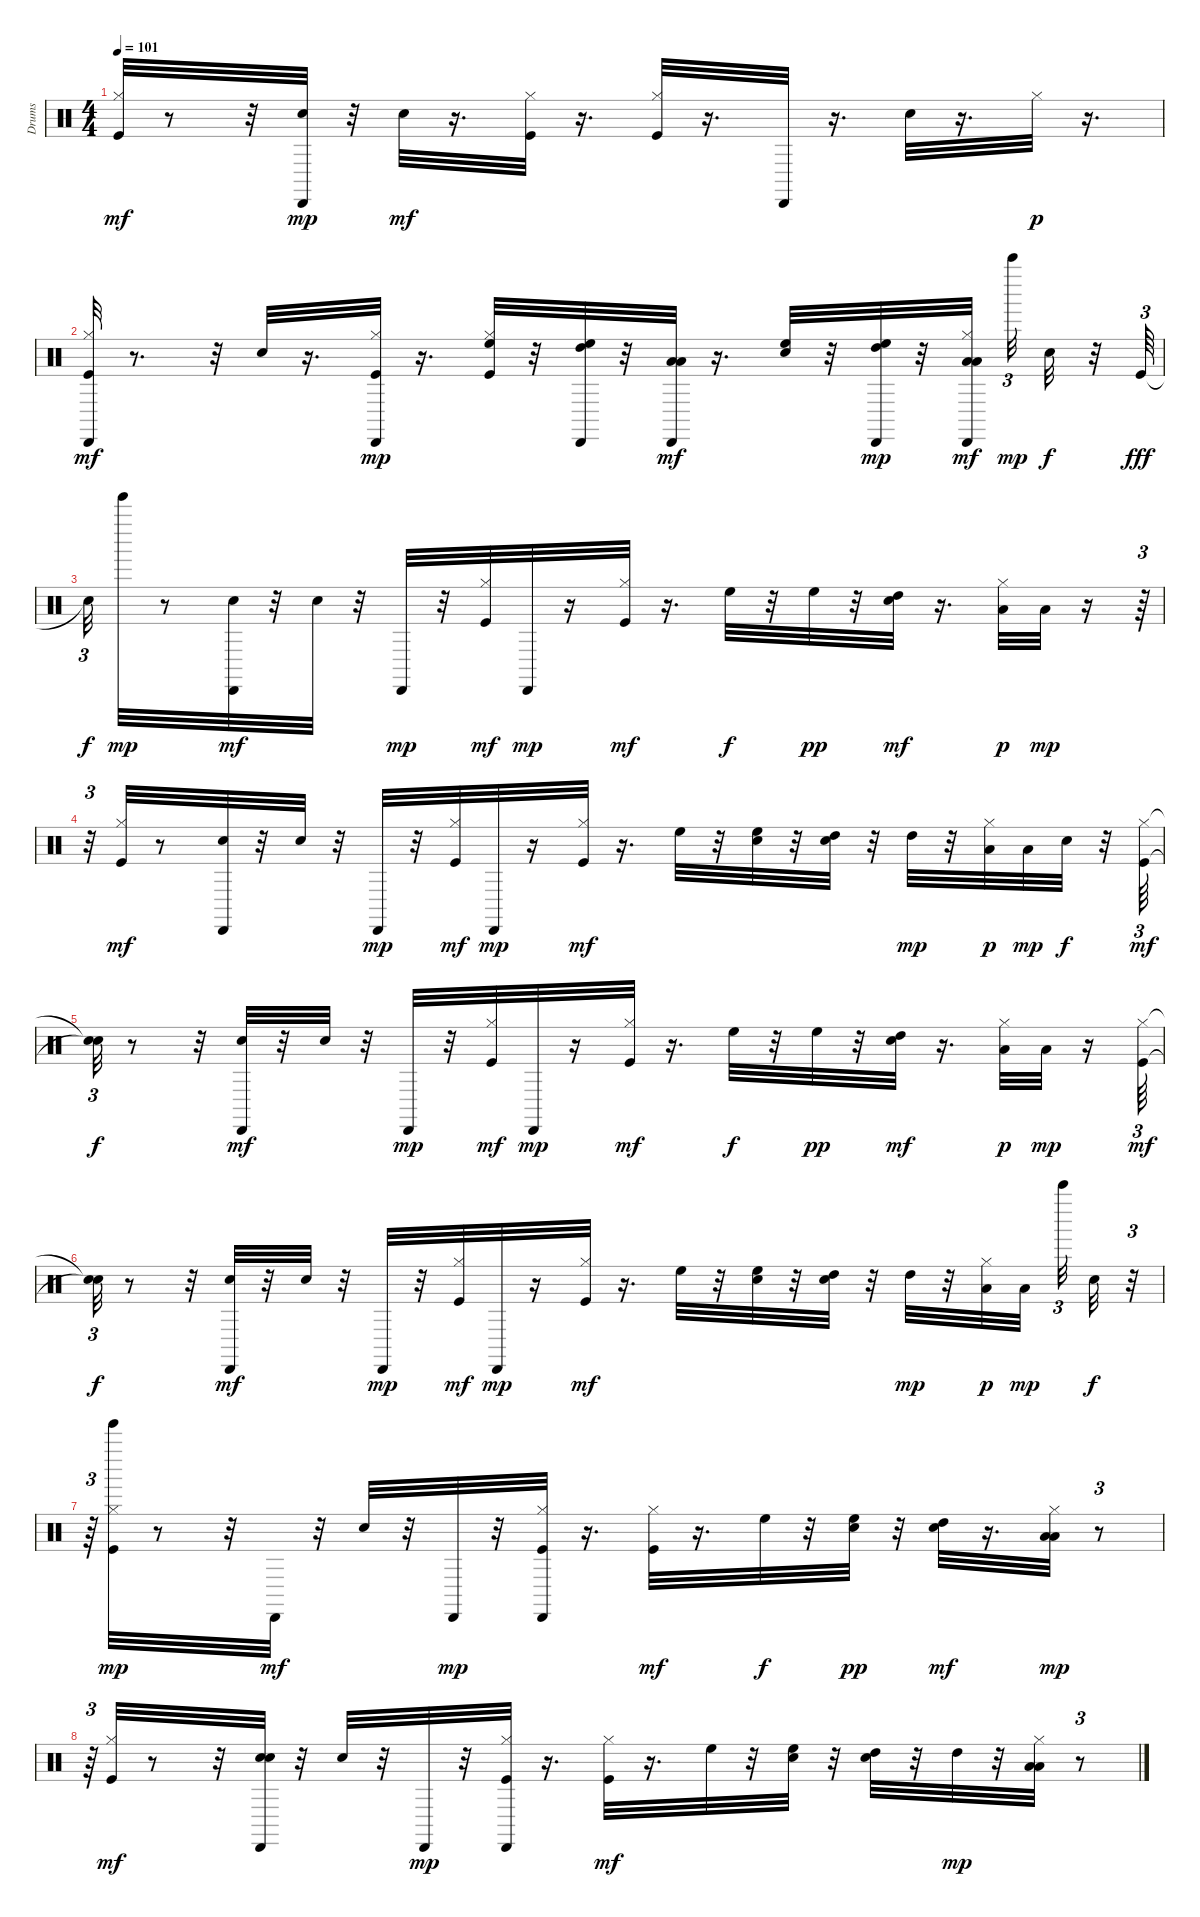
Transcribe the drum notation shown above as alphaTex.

\track ("Drums" "Drums") {instrument percussion}
\staff {score}
\articulation defaults
\ts (4 4)
\tempo 101
\clef neutral
\ks c
("Kick (hit)" "Hi-Hat (closed)").32{dy mf} r.8 r.32 ("Hand Clap (hit)" "Cabasa (hit)").32{dy mp} r.32 "Snare (hit) 2".32{dy mf} r.16{d} ("Kick (hit)" "Hi-Hat (closed)").32 r.16{d} ("Kick (hit)" "Hi-Hat (closed)").32 r.16{d} "Cabasa (hit)".32 r.16{d} "Snare (hit) 2".32 r.16{d} "Hi-Hat (closed)".32{dy p} r.16{d} |
("Kick (hit)" "Hi-Hat (closed)" "Cabasa (hit)").32{dy mf} r.8{d} r.32 "Snare (hit) 2".32 r.16{d} ("Kick (hit)" "Hi-Hat (closed)" "Cabasa (hit)").32{dy mp} r.16{d} ("Kick (hit)" "Hi-Hat (closed)" "High Floor Tom (hit)").32 r.32 ("High Tom (hit)" "High Floor Tom (hit)" "Cabasa (hit)").32 r.32 ("Low Floor Tom (hit)" "Low Tom (hit)" "Cabasa (hit)").32{dy mf} r.16{d} ("Snare (hit) 2" "High Floor Tom (hit)").32 r.32 ("High Tom (hit)" "High Floor Tom (hit)" "Cabasa (hit)").32{dy mp} r.32 ("Low Floor Tom (hit)" "Hi-Hat (closed)" "Low Tom (hit)" "Cabasa (hit)").32{dy mf beam splitsecondary} "Bell Tree (hit)".32{tu (3 2) dy mp} "Hand Clap (hit)".32{dy f} r.32 "Kick (hit)".64{tu (3 2) dy fff} |
"Snare (hit)"{t}.32{tu (3 2) dy f} "Tinkle Bell (hit)".32{dy mp} r.8 ("Hand Clap (hit)" "Cabasa (hit)").32{dy mf} r.32 "Snare (hit) 2".32 r.32 "Cabasa (hit)".32{dy mp} r.32 ("Kick (hit)" "Hi-Hat (closed)").32{dy mf} "Cabasa (hit)".32{dy mp} r.16 ("Kick (hit)" "Hi-Hat (closed)").32{dy mf} r.16{d} "High Floor Tom (hit)".32{dy f} r.32 "High Floor Tom (hit)".32{dy pp} r.32 ("Snare (hit) 2" "High Tom (hit)").32{dy mf} r.16{d} ("Low Floor Tom (hit)" "Hi-Hat (closed)").32{dy p} "Low Tom (hit)".32{dy mp} r.16 r.64{tu (3 2)} |
r.32{tu (3 2)} ("Kick (hit)" "Hi-Hat (closed)").32{dy mf} r.8 ("Hand Clap (hit)" "Cabasa (hit)").32 r.32 "Snare (hit) 2".32 r.32 "Cabasa (hit)".32{dy mp} r.32 ("Kick (hit)" "Hi-Hat (closed)").32{dy mf} "Cabasa (hit)".32{dy mp} r.16 ("Kick (hit)" "Hi-Hat (closed)").32{dy mf} r.16{d} "High Floor Tom (hit)".32 r.32 ("Hand Clap (hit)" "High Floor Tom (hit)").32 r.32 ("Snare (hit) 2" "High Tom (hit)").32 r.32 "High Tom (hit)".32{dy mp} r.32 ("Low Floor Tom (hit)" "Hi-Hat (closed)").32{dy p} "Low Tom (hit)".32{dy mp} "Hand Clap (hit)".32{dy f} r.32 ("Kick (hit)" "Hi-Hat (closed)").64{tu (3 2) dy mf} |
("Snare (hit)"{t} "Snare (hit)"{t}).32{tu (3 2) dy f} r.8 r.32 ("Hand Clap (hit)" "Cabasa (hit)").32{dy mf} r.32 "Snare (hit) 2".32 r.32 "Cabasa (hit)".32{dy mp} r.32 ("Kick (hit)" "Hi-Hat (closed)").32{dy mf} "Cabasa (hit)".32{dy mp} r.16 ("Kick (hit)" "Hi-Hat (closed)").32{dy mf} r.16{d} "High Floor Tom (hit)".32{dy f} r.32 "High Floor Tom (hit)".32{dy pp} r.32 ("Snare (hit) 2" "High Tom (hit)").32{dy mf} r.16{d} ("Low Floor Tom (hit)" "Hi-Hat (closed)").32{dy p} "Low Tom (hit)".32{dy mp} r.16 ("Kick (hit)" "Hi-Hat (closed)").64{tu (3 2) dy mf} |
("Snare (hit)"{t} "Snare (hit)"{t}).32{tu (3 2) dy f} r.8 r.32 ("Hand Clap (hit)" "Cabasa (hit)").32{dy mf} r.32 "Snare (hit) 2".32 r.32 "Cabasa (hit)".32{dy mp} r.32 ("Kick (hit)" "Hi-Hat (closed)").32{dy mf} "Cabasa (hit)".32{dy mp} r.16 ("Kick (hit)" "Hi-Hat (closed)").32{dy mf} r.16{d} "High Floor Tom (hit)".32 r.32 ("Hand Clap (hit)" "High Floor Tom (hit)").32 r.32 ("Snare (hit) 2" "High Tom (hit)").32 r.32 "High Tom (hit)".32{dy mp} r.32 ("Low Floor Tom (hit)" "Hi-Hat (closed)").32{dy p} "Low Tom (hit)".32{dy mp beam splitsecondary} "Bell Tree (hit)".32{tu (3 2)} "Hand Clap (hit)".32{dy f} r.32{tu (3 2)} |
r.64{tu (3 2)} ("Kick (hit)" "Hi-Hat (closed)" "Tinkle Bell (hit)").32{dy mp} r.8 r.32 "Cabasa (hit)".32{dy mf} r.32 "Snare (hit) 2".32 r.32 "Cabasa (hit)".32{dy mp} r.32 ("Kick (hit)" "Hi-Hat (closed)" "Cabasa (hit)").32 r.16{d} ("Kick (hit)" "Hi-Hat (closed)").32{dy mf} r.16{d} "High Floor Tom (hit)".32{dy f} r.32 ("Hand Clap (hit)" "High Floor Tom (hit)").32{dy pp} r.32 ("Snare (hit) 2" "High Tom (hit)").32{dy mf} r.16{d} ("Low Floor Tom (hit)" "Hi-Hat (closed)" "Low Tom (hit)").32{dy mp} r.8{tu (3 2)} |
r.64{tu (3 2)} ("Kick (hit)" "Hi-Hat (closed)").32{dy mf} r.8 r.32 ("Hand Clap (hit)" "Hand Clap (hit)" "Cabasa (hit)").32 r.32 "Snare (hit) 2".32 r.32 "Cabasa (hit)".32{dy mp} r.32 ("Kick (hit)" "Hi-Hat (closed)" "Cabasa (hit)").32 r.16{d} ("Kick (hit)" "Hi-Hat (closed)").32{dy mf} r.16{d} "High Floor Tom (hit)".32 r.32 ("Hand Clap (hit)" "High Floor Tom (hit)").32 r.32 ("Snare (hit) 2" "High Tom (hit)").32 r.32 "High Tom (hit)".32{dy mp} r.32 ("Low Floor Tom (hit)" "Hi-Hat (closed)" "Low Tom (hit)").32 r.8{tu (3 2)}
